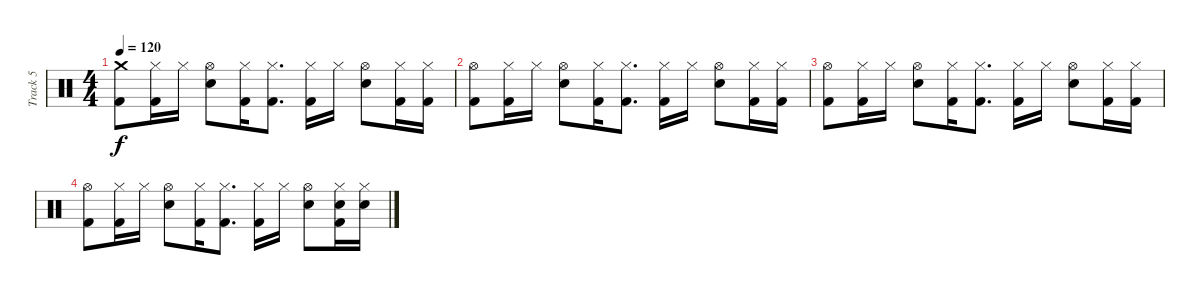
\track ("Track 5" "Track 5") {instrument percussion}
\staff {score}
\articulation defaults
\ts (4 4)
\tempo 120
\clef neutral
\ks c
("Crash medium (hit)" "Kick (hit) 2").8{dy f} ("Hi-Hat (closed)" "Kick (hit) 2").16 "Hi-Hat (closed)".16 ("Hi-Hat (open)" "Snare (hit) 2").8 ("Hi-Hat (closed)" "Kick (hit) 2").16 ("Hi-Hat (closed)" "Kick (hit) 2").8{d} ("Hi-Hat (closed)" "Kick (hit) 2").16 "Hi-Hat (closed)".16 ("Hi-Hat (open)" "Snare (hit) 2").8 ("Hi-Hat (closed)" "Kick (hit) 2").16 ("Hi-Hat (closed)" "Kick (hit) 2").16 |
("Hi-Hat (open)" "Kick (hit) 2").8 ("Hi-Hat (closed)" "Kick (hit) 2").16 "Hi-Hat (closed)".16 ("Hi-Hat (open)" "Snare (hit) 2").8 ("Hi-Hat (closed)" "Kick (hit) 2").16 ("Hi-Hat (closed)" "Kick (hit) 2").8{d} ("Hi-Hat (closed)" "Kick (hit) 2").16 "Hi-Hat (closed)".16 ("Hi-Hat (open)" "Snare (hit) 2").8 ("Hi-Hat (closed)" "Kick (hit) 2").16 ("Hi-Hat (closed)" "Kick (hit) 2").16 |
("Hi-Hat (open)" "Kick (hit) 2").8 ("Hi-Hat (closed)" "Kick (hit) 2").16 "Hi-Hat (closed)".16 ("Hi-Hat (open)" "Snare (hit) 2").8 ("Hi-Hat (closed)" "Kick (hit) 2").16 ("Hi-Hat (closed)" "Kick (hit) 2").8{d} ("Hi-Hat (closed)" "Kick (hit) 2").16 "Hi-Hat (closed)".16 ("Hi-Hat (open)" "Snare (hit) 2").8 ("Hi-Hat (closed)" "Kick (hit) 2").16 ("Hi-Hat (closed)" "Kick (hit) 2").16 |
("Hi-Hat (open)" "Kick (hit) 2").8 ("Hi-Hat (closed)" "Kick (hit) 2").16 "Hi-Hat (closed)".16 ("Hi-Hat (open)" "Snare (hit) 2").8 ("Hi-Hat (closed)" "Kick (hit) 2").16 ("Hi-Hat (closed)" "Kick (hit) 2").8{d} ("Hi-Hat (closed)" "Kick (hit) 2").16 "Hi-Hat (closed)".16 ("Hi-Hat (open)" "Snare (hit) 2").8 ("Hi-Hat (closed)" "Snare (hit) 2" "Kick (hit) 2").16 ("Hi-Hat (closed)" "Snare (hit) 2").16
